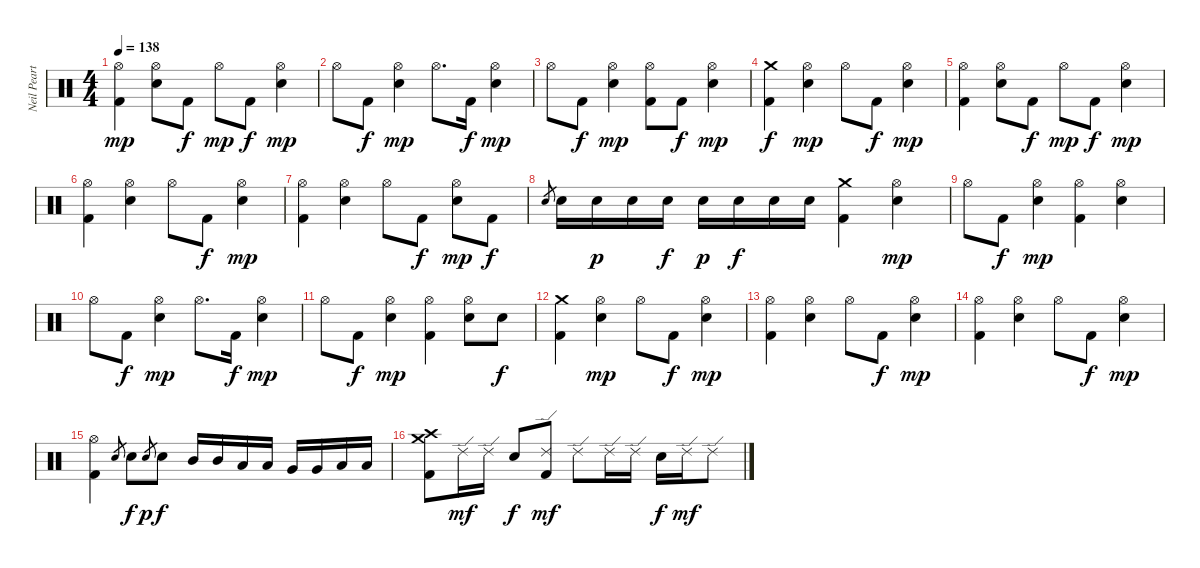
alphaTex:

\track ("Neil Peart, Percusión" "Neil Peart") {instrument percussion}
\staff {score}
\articulation defaults
\ts (4 4)
\tempo 138
\clef neutral
\ks c
("Hi-Hat (open)" "Kick (hit) 2").4{dy mp} ("Hi-Hat (open)" "Electric Snare (hit)").8 "Kick (hit) 2".8{dy f} "Hi-Hat (open)".8{dy mp} "Kick (hit) 2".8{dy f} ("Hi-Hat (open)" "Electric Snare (hit)").4{dy mp} |
"Hi-Hat (open)".8 "Kick (hit) 2".8{dy f} ("Hi-Hat (open)" "Electric Snare (hit)").4{dy mp} "Hi-Hat (open)".8{d} "Kick (hit) 2".16{dy f} ("Hi-Hat (open)" "Electric Snare (hit)").4{dy mp} |
"Hi-Hat (open)".8 "Kick (hit) 2".8{dy f} ("Hi-Hat (open)" "Electric Snare (hit)").4{dy mp} ("Hi-Hat (open)" "Kick (hit) 2").8 "Kick (hit) 2".8{dy f} ("Hi-Hat (open)" "Electric Snare (hit)").4{dy mp} |
("Crash medium (hit)" "Kick (hit) 2").4{dy f} ("Hi-Hat (open)" "Electric Snare (hit)").4{dy mp} "Hi-Hat (open)".8 "Kick (hit) 2".8{dy f} ("Hi-Hat (open)" "Electric Snare (hit)").4{dy mp} |
("Hi-Hat (open)" "Kick (hit) 2").4 ("Hi-Hat (open)" "Electric Snare (hit)").8 "Kick (hit) 2".8{dy f} "Hi-Hat (open)".8{dy mp} "Kick (hit) 2".8{dy f} ("Hi-Hat (open)" "Electric Snare (hit)").4{dy mp} |
("Hi-Hat (open)" "Kick (hit) 2").4 ("Hi-Hat (open)" "Electric Snare (hit)").4 "Hi-Hat (open)".8 "Kick (hit) 2".8{dy f} ("Hi-Hat (open)" "Electric Snare (hit)").4{dy mp} |
("Hi-Hat (open)" "Kick (hit) 2").4 ("Hi-Hat (open)" "Electric Snare (hit)").4 "Hi-Hat (open)".8 "Kick (hit) 2".8{dy f} ("Hi-Hat (open)" "Electric Snare (hit)").8{dy mp} "Kick (hit) 2".8{dy f} |
"Electric Snare (hit)".8{gr} "Electric Snare (hit)".16 "Electric Snare (hit)".16{dy p} "Electric Snare (hit)".16 "Electric Snare (hit)".16{dy f} "Electric Snare (hit)".16{dy p} "Electric Snare (hit)".16{dy f} "Electric Snare (hit)".16 "Electric Snare (hit)".16 ("Crash medium (hit)" "Kick (hit) 2").4 ("Hi-Hat (open)" "Electric Snare (hit)").4{dy mp} |
"Hi-Hat (open)".8 "Kick (hit) 2".8{dy f} ("Hi-Hat (open)" "Electric Snare (hit)").4{dy mp} ("Hi-Hat (open)" "Kick (hit) 2").4 ("Hi-Hat (open)" "Electric Snare (hit)").4 |
"Hi-Hat (open)".8 "Kick (hit) 2".8{dy f} ("Hi-Hat (open)" "Electric Snare (hit)").4{dy mp} "Hi-Hat (open)".8{d} "Kick (hit) 2".16{dy f} ("Hi-Hat (open)" "Electric Snare (hit)").4{dy mp} |
"Hi-Hat (open)".8 "Kick (hit) 2".8{dy f} ("Hi-Hat (open)" "Electric Snare (hit)").4{dy mp} ("Hi-Hat (open)" "Kick (hit) 2").4 ("Hi-Hat (open)" "Electric Snare (hit)").8 "Electric Snare (hit)".8{dy f} |
("Crash medium (hit)" "Kick (hit) 2").4 ("Hi-Hat (open)" "Electric Snare (hit)").4{dy mp} "Hi-Hat (open)".8 "Kick (hit) 2".8{dy f} ("Hi-Hat (open)" "Electric Snare (hit)").4{dy mp} |
("Hi-Hat (open)" "Kick (hit) 2").4 ("Hi-Hat (open)" "Electric Snare (hit)").4 "Hi-Hat (open)".8 "Kick (hit) 2".8{dy f} ("Hi-Hat (open)" "Electric Snare (hit)").4{dy mp} |
("Hi-Hat (open)" "Kick (hit) 2").4 ("Hi-Hat (open)" "Electric Snare (hit)").4 "Hi-Hat (open)".8 "Kick (hit) 2".8{dy f} ("Hi-Hat (open)" "Electric Snare (hit)").4{dy mp} |
("Hi-Hat (open)" "Kick (hit) 2").4 "Electric Snare (hit)".8{gr} "Electric Snare (hit)".8{dy f} "Electric Snare (hit)".8{gr dy p} "Electric Snare (hit)".8{dy f} "Mid Tom (hit)".16 "Mid Tom (hit)".16 "Low Tom (hit)".16 "Low Tom (hit)".16 "Very Low Tom (hit)".16 "Very Low Tom (hit)".16 "Low Floor Tom (hit)".16 "Low Floor Tom (hit)".16 |
("Crash medium (hit)" "Crash high (hit)" "Kick (hit) 2").8 "Ride (edge) 2".16{dy mf} "Ride (edge) 2".16 "Electric Snare (hit)".8{dy f} ("Ride (edge) 2" "Kick (hit) 2").8{dy mf} "Ride (edge) 2".8 "Ride (edge) 2".16 "Ride (edge) 2".16 "Electric Snare (hit)".16{dy f} "Ride (edge) 2".16{dy mf} "Ride (edge) 2".8
